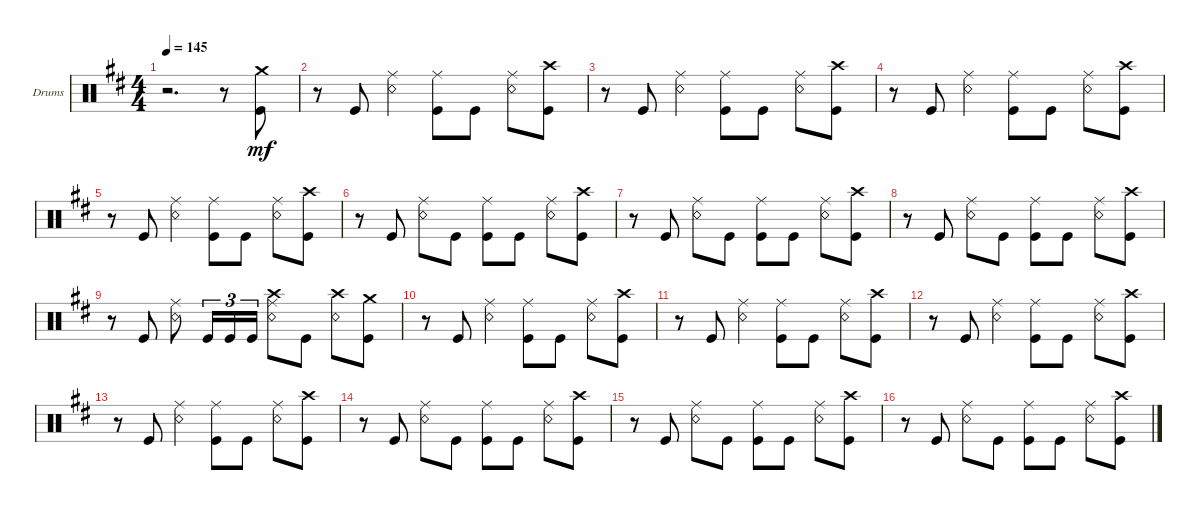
\defaultSystemsLayout 4
\bracketExtendMode groupsimilarinstruments
\firstSystemTrackNameOrientation horizontal
\otherSystemsTrackNameOrientation horizontal
\track ("Drumkit" "Drums") {instrument percussion}
\staff {score}
\articulation defaults
\ts (4 4)
\tempo 145
\clef neutral
\ks bminor
r.2{d dy mf} r.8 ("Kick (hit)" "Crash medium (hit)").8 |
r.8 "Kick (hit)".8 ("Snare (rim shot)" "Ride (middle)").4 ("Ride (middle)" "Kick (hit)").8 "Kick (hit)".8 ("Snare (rim shot)" "Ride (middle)").8 ("Kick (hit)" "Crash high (hit)").8 |
r.8 "Kick (hit)".8 ("Snare (rim shot)" "Ride (middle)").4 ("Ride (middle)" "Kick (hit)").8 "Kick (hit)".8 ("Snare (rim shot)" "Ride (middle)").8 ("Kick (hit)" "Crash high (hit)").8 |
r.8 "Kick (hit)".8 ("Snare (rim shot)" "Ride (middle)").4 ("Ride (middle)" "Kick (hit)").8 "Kick (hit)".8 ("Snare (rim shot)" "Ride (middle)").8 ("Kick (hit)" "Crash high (hit)").8 |
r.8 "Kick (hit)".8 ("Snare (rim shot)" "Ride (middle)").4 ("Ride (middle)" "Kick (hit)").8 "Kick (hit)".8 ("Snare (rim shot)" "Ride (middle)").8 ("Kick (hit)" "Crash high (hit)").8 |
r.8 "Kick (hit)".8 ("Snare (rim shot)" "Ride (middle)").8 "Kick (hit)".8 ("Ride (middle)" "Kick (hit)").8 "Kick (hit)".8 ("Snare (rim shot)" "Ride (middle)").8 ("Kick (hit)" "Crash high (hit)").8 |
r.8 "Kick (hit)".8 ("Snare (rim shot)" "Ride (middle)").8 "Kick (hit)".8 ("Ride (middle)" "Kick (hit)").8 "Kick (hit)".8 ("Snare (rim shot)" "Ride (middle)").8 ("Kick (hit)" "Crash high (hit)").8 |
r.8 "Kick (hit)".8 ("Snare (rim shot)" "Ride (middle)").8 "Kick (hit)".8 ("Ride (middle)" "Kick (hit)").8 "Kick (hit)".8 ("Snare (rim shot)" "Ride (middle)").8 ("Kick (hit)" "Crash high (hit)").8 |
r.8 "Kick (hit)".8 ("Snare (rim shot)" "Ride (middle)").8 "Kick (hit)".16{tu (3 2)} "Kick (hit)".16{tu (3 2)} "Kick (hit)".16{tu (3 2)} ("Snare (rim shot)" "Ride (middle)" "Crash high (hit)").8 "Kick (hit)".8 ("Snare (rim shot)" "Crash high (hit)").8 ("Kick (hit)" "Crash medium (hit)").8 |
r.8 "Kick (hit)".8 ("Snare (rim shot)" "Ride (middle)").4 ("Ride (middle)" "Kick (hit)").8 "Kick (hit)".8 ("Snare (rim shot)" "Ride (middle)").8 ("Kick (hit)" "Crash high (hit)").8 |
r.8 "Kick (hit)".8 ("Snare (rim shot)" "Ride (middle)").4 ("Ride (middle)" "Kick (hit)").8 "Kick (hit)".8 ("Snare (rim shot)" "Ride (middle)").8 ("Kick (hit)" "Crash high (hit)").8 |
r.8 "Kick (hit)".8 ("Snare (rim shot)" "Ride (middle)").4 ("Ride (middle)" "Kick (hit)").8 "Kick (hit)".8 ("Snare (rim shot)" "Ride (middle)").8 ("Kick (hit)" "Crash high (hit)").8 |
r.8 "Kick (hit)".8 ("Snare (rim shot)" "Ride (middle)").4 ("Ride (middle)" "Kick (hit)").8 "Kick (hit)".8 ("Snare (rim shot)" "Ride (middle)").8 ("Kick (hit)" "Crash high (hit)").8 |
r.8 "Kick (hit)".8 ("Snare (rim shot)" "Ride (middle)").8 "Kick (hit)".8 ("Ride (middle)" "Kick (hit)").8 "Kick (hit)".8 ("Snare (rim shot)" "Ride (middle)").8 ("Kick (hit)" "Crash high (hit)").8 |
r.8 "Kick (hit)".8 ("Snare (rim shot)" "Ride (middle)").8 "Kick (hit)".8 ("Ride (middle)" "Kick (hit)").8 "Kick (hit)".8 ("Snare (rim shot)" "Ride (middle)").8 ("Kick (hit)" "Crash high (hit)").8 |
r.8 "Kick (hit)".8 ("Snare (rim shot)" "Ride (middle)").8 "Kick (hit)".8 ("Ride (middle)" "Kick (hit)").8 "Kick (hit)".8 ("Snare (rim shot)" "Ride (middle)").8 ("Kick (hit)" "Crash high (hit)").8
